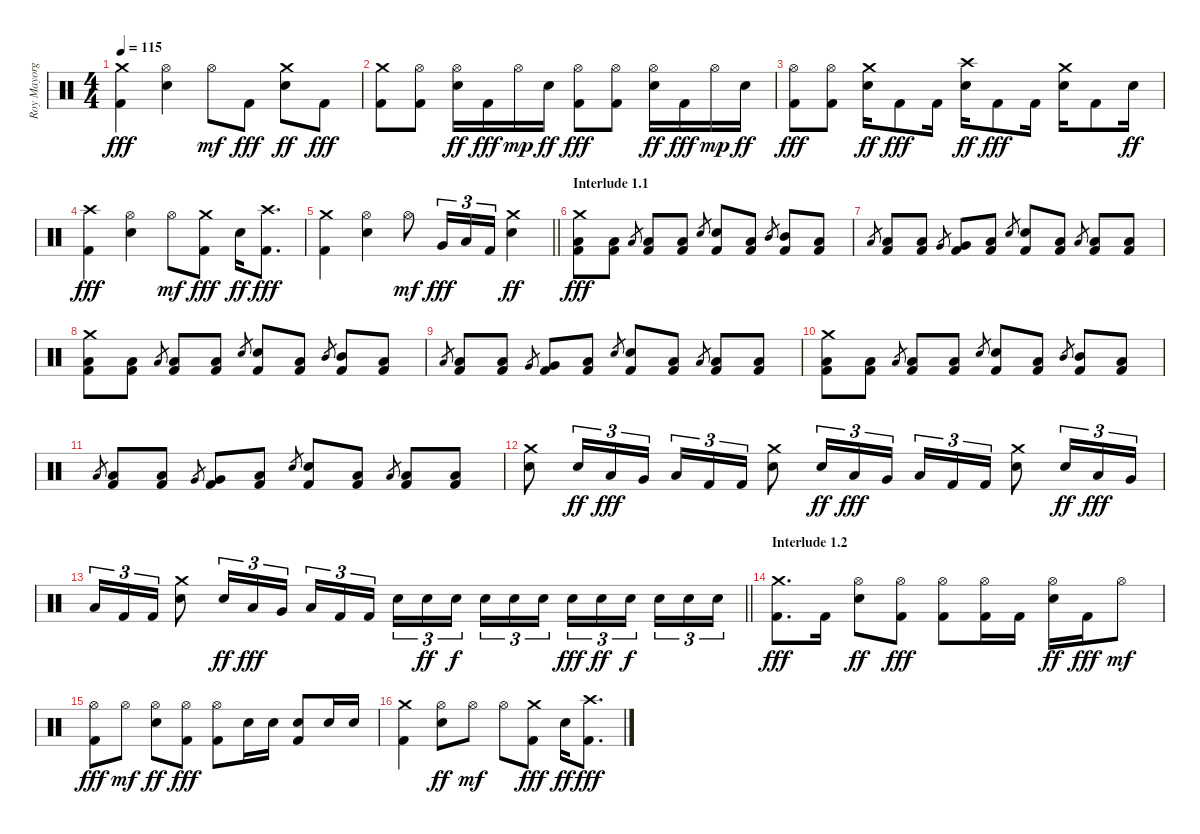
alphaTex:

\track ("Roy Mayorga" "Roy Mayorg") {instrument percussion}
\staff {score}
\articulation defaults
\ts (4 4)
\tempo 115
\clef neutral
\ks c
("Crash medium (hit)" "Kick (hit) 2").4{dy fff} ("Hi-Hat (open)" "Electric Snare (hit)").4 "Hi-Hat (open)".8{dy mf} "Kick (hit) 2".8{dy fff} ("Crash medium (hit)" "Electric Snare (hit)").8{dy ff} "Kick (hit) 2".8{dy fff} |
("Crash medium (hit)" "Kick (hit) 2").8 ("Hi-Hat (open)" "Kick (hit) 2").8 ("Hi-Hat (open)" "Electric Snare (hit)").16{dy ff} "Kick (hit) 2".16{dy fff} "Hi-Hat (open)".16{dy mp} "Electric Snare (hit)".16{dy ff} ("Hi-Hat (open)" "Kick (hit) 2").8{dy fff} ("Hi-Hat (open)" "Kick (hit) 2").8 ("Hi-Hat (open)" "Electric Snare (hit)").16{dy ff} "Kick (hit) 2".16{dy fff} "Hi-Hat (open)".16{dy mp} "Electric Snare (hit)".16{dy ff} |
("Hi-Hat (open)" "Kick (hit) 2").8{dy fff} ("Hi-Hat (open)" "Kick (hit) 2").8 ("Crash medium (hit)" "Electric Snare (hit)").16{dy ff} "Kick (hit) 2".8{dy fff} "Kick (hit) 2".16 ("Crash high (hit)" "Electric Snare (hit)").16{dy ff} "Kick (hit) 2".8{dy fff} "Kick (hit) 2".16 ("Crash medium (hit)" "Electric Snare (hit)").16 "Kick (hit) 2".8 "Electric Snare (hit)".16{dy ff} |
("Crash high (hit)" "Kick (hit) 2").4{dy fff} ("Hi-Hat (open)" "Electric Snare (hit)").4 "Hi-Hat (open)".8{dy mf} ("Crash medium (hit)" "Kick (hit) 2").8{dy fff} "Electric Snare (hit)".16{dy ff} ("Crash high (hit)" "Kick (hit) 2").8{d dy fff} |
\barLineRight lightlight
("Crash medium (hit)" "Kick (hit) 2").4 ("Hi-Hat (open)" "Electric Snare (hit)").4 "Hi-Hat (open)".8{dy mf} "Very Low Tom (hit)".16{tu (3 2) dy fff} "Low Floor Tom (hit)".16{tu (3 2)} "Kick (hit) 2".16{tu (3 2)} ("Crash medium (hit)" "Electric Snare (hit)").4{dy ff} |
\section ("" "Interlude 1.1")
("Crash medium (hit)" "Low Floor Tom (hit)" "Kick (hit) 2").8{dy fff} ("Low Floor Tom (hit)" "Kick (hit) 2").8 "Low Tom (hit)".8{gr} ("Low Tom (hit)" "Kick (hit) 2").8 ("Low Floor Tom (hit)" "Kick (hit) 2").8 "Electric Snare (hit)".8{gr} ("Electric Snare (hit)" "Kick (hit) 2").8 ("Low Floor Tom (hit)" "Kick (hit) 2").8 "Mid Tom (hit)".8{gr} ("Mid Tom (hit)" "Kick (hit) 2").8 ("Low Floor Tom (hit)" "Kick (hit) 2").8 |
"Low Tom (hit)".8{gr} ("Low Tom (hit)" "Kick (hit) 2").8 ("Low Floor Tom (hit)" "Kick (hit) 2").8 "Very Low Tom (hit)".8{gr} ("Very Low Tom (hit)" "Kick (hit) 2").8 ("Low Floor Tom (hit)" "Kick (hit) 2").8 "Electric Snare (hit)".8{gr} ("Electric Snare (hit)" "Kick (hit) 2").8 ("Low Floor Tom (hit)" "Kick (hit) 2").8 "Low Tom (hit)".8{gr} ("Low Tom (hit)" "Kick (hit) 2").8 ("Low Floor Tom (hit)" "Kick (hit) 2").8 |
("Crash medium (hit)" "Low Floor Tom (hit)" "Kick (hit) 2").8 ("Low Floor Tom (hit)" "Kick (hit) 2").8 "Low Tom (hit)".8{gr} ("Low Tom (hit)" "Kick (hit) 2").8 ("Low Floor Tom (hit)" "Kick (hit) 2").8 "Electric Snare (hit)".8{gr} ("Electric Snare (hit)" "Kick (hit) 2").8 ("Low Floor Tom (hit)" "Kick (hit) 2").8 "Mid Tom (hit)".8{gr} ("Mid Tom (hit)" "Kick (hit) 2").8 ("Low Floor Tom (hit)" "Kick (hit) 2").8 |
"Low Tom (hit)".8{gr} ("Low Tom (hit)" "Kick (hit) 2").8 ("Low Floor Tom (hit)" "Kick (hit) 2").8 "Very Low Tom (hit)".8{gr} ("Very Low Tom (hit)" "Kick (hit) 2").8 ("Low Floor Tom (hit)" "Kick (hit) 2").8 "Electric Snare (hit)".8{gr} ("Electric Snare (hit)" "Kick (hit) 2").8 ("Low Floor Tom (hit)" "Kick (hit) 2").8 "Low Tom (hit)".8{gr} ("Low Tom (hit)" "Kick (hit) 2").8 ("Low Floor Tom (hit)" "Kick (hit) 2").8 |
("Crash medium (hit)" "Low Floor Tom (hit)" "Kick (hit) 2").8 ("Low Floor Tom (hit)" "Kick (hit) 2").8 "Low Tom (hit)".8{gr} ("Low Tom (hit)" "Kick (hit) 2").8 ("Low Floor Tom (hit)" "Kick (hit) 2").8 "Electric Snare (hit)".8{gr} ("Electric Snare (hit)" "Kick (hit) 2").8 ("Low Floor Tom (hit)" "Kick (hit) 2").8 "Mid Tom (hit)".8{gr} ("Mid Tom (hit)" "Kick (hit) 2").8 ("Low Floor Tom (hit)" "Kick (hit) 2").8 |
"Low Tom (hit)".8{gr} ("Low Tom (hit)" "Kick (hit) 2").8 ("Low Floor Tom (hit)" "Kick (hit) 2").8 "Very Low Tom (hit)".8{gr} ("Very Low Tom (hit)" "Kick (hit) 2").8 ("Low Floor Tom (hit)" "Kick (hit) 2").8 "Electric Snare (hit)".8{gr} ("Electric Snare (hit)" "Kick (hit) 2").8 ("Low Floor Tom (hit)" "Kick (hit) 2").8 "Low Tom (hit)".8{gr} ("Low Tom (hit)" "Kick (hit) 2").8 ("Low Floor Tom (hit)" "Kick (hit) 2").8 |
("Crash medium (hit)" "Electric Snare (hit)").8 "Electric Snare (hit)".16{tu (3 2) dy ff} "Low Tom (hit)".16{tu (3 2) dy fff} "Very Low Tom (hit)".16{tu (3 2)} "Low Floor Tom (hit)".16{tu (3 2)} "Kick (hit) 2".16{tu (3 2)} "Kick (hit) 2".16{tu (3 2)} ("Crash medium (hit)" "Electric Snare (hit)").8 "Electric Snare (hit)".16{tu (3 2) dy ff} "Low Tom (hit)".16{tu (3 2) dy fff} "Very Low Tom (hit)".16{tu (3 2) beam splitsecondary} "Low Floor Tom (hit)".16{tu (3 2)} "Kick (hit) 2".16{tu (3 2)} "Kick (hit) 2".16{tu (3 2)} ("Crash medium (hit)" "Electric Snare (hit)").8 "Electric Snare (hit)".16{tu (3 2) dy ff} "Low Tom (hit)".16{tu (3 2) dy fff} "Very Low Tom (hit)".16{tu (3 2)} |
\barLineRight lightlight "Low Floor Tom (hit)".16{tu (3 2)} "Kick (hit) 2".16{tu (3 2)} "Kick (hit) 2".16{tu (3 2)}
("Crash medium (hit)" "Electric Snare (hit)").8 "Electric Snare (hit)".16{tu (3 2) dy ff} "Low Tom (hit)".16{tu (3 2) dy fff} "Very Low Tom (hit)".16{tu (3 2) beam splitsecondary} "Low Floor Tom (hit)".16{tu (3 2)} "Kick (hit) 2".16{tu (3 2)} "Kick (hit) 2".16{tu (3 2)} "Electric Snare (hit)".16{tu (3 2)} "Electric Snare (hit)".16{tu (3 2) dy ff} "Electric Snare (hit)".16{tu (3 2) dy f beam splitsecondary} "Electric Snare (hit)".16{tu (3 2)} "Electric Snare (hit)".16{tu (3 2)} "Electric Snare (hit)".16{tu (3 2)} "Electric Snare (hit)".16{tu (3 2) dy fff} "Electric Snare (hit)".16{tu (3 2) dy ff} "Electric Snare (hit)".16{tu (3 2) dy f beam splitsecondary} "Electric Snare (hit)".16{tu (3 2)} "Electric Snare (hit)".16{tu (3 2)} "Electric Snare (hit)".16{tu (3 2)} |
\section ("" "Interlude 1.2")
("Crash medium (hit)" "Kick (hit) 2").8{d dy fff} "Kick (hit) 2".16 ("Hi-Hat (open)" "Electric Snare (hit)").8{dy ff} ("Hi-Hat (open)" "Kick (hit) 2").8{dy fff} ("Hi-Hat (open)" "Kick (hit) 2").8 ("Hi-Hat (open)" "Kick (hit) 2").16 "Kick (hit) 2".16 ("Hi-Hat (open)" "Electric Snare (hit)").16{dy ff} "Kick (hit) 2".16{dy fff} "Hi-Hat (open)".8{dy mf} |
("Hi-Hat (open)" "Kick (hit) 2").8{dy fff} "Hi-Hat (open)".8{dy mf} ("Hi-Hat (open)" "Electric Snare (hit)").8{dy ff} ("Hi-Hat (open)" "Kick (hit) 2").8{dy fff} ("Hi-Hat (open)" "Kick (hit) 2").8 "Electric Snare (hit)".16 "Electric Snare (hit)".16 ("Electric Snare (hit)" "Kick (hit) 2").8 "Electric Snare (hit)".16 "Electric Snare (hit)".16 |
("Crash medium (hit)" "Kick (hit) 2").4 ("Hi-Hat (open)" "Electric Snare (hit)").8{dy ff} "Hi-Hat (open)".8{dy mf} "Hi-Hat (open)".8 ("Crash medium (hit)" "Kick (hit) 2").8{dy fff} "Electric Snare (hit)".16{dy ff} ("Crash high (hit)" "Kick (hit) 2").8{d dy fff}
